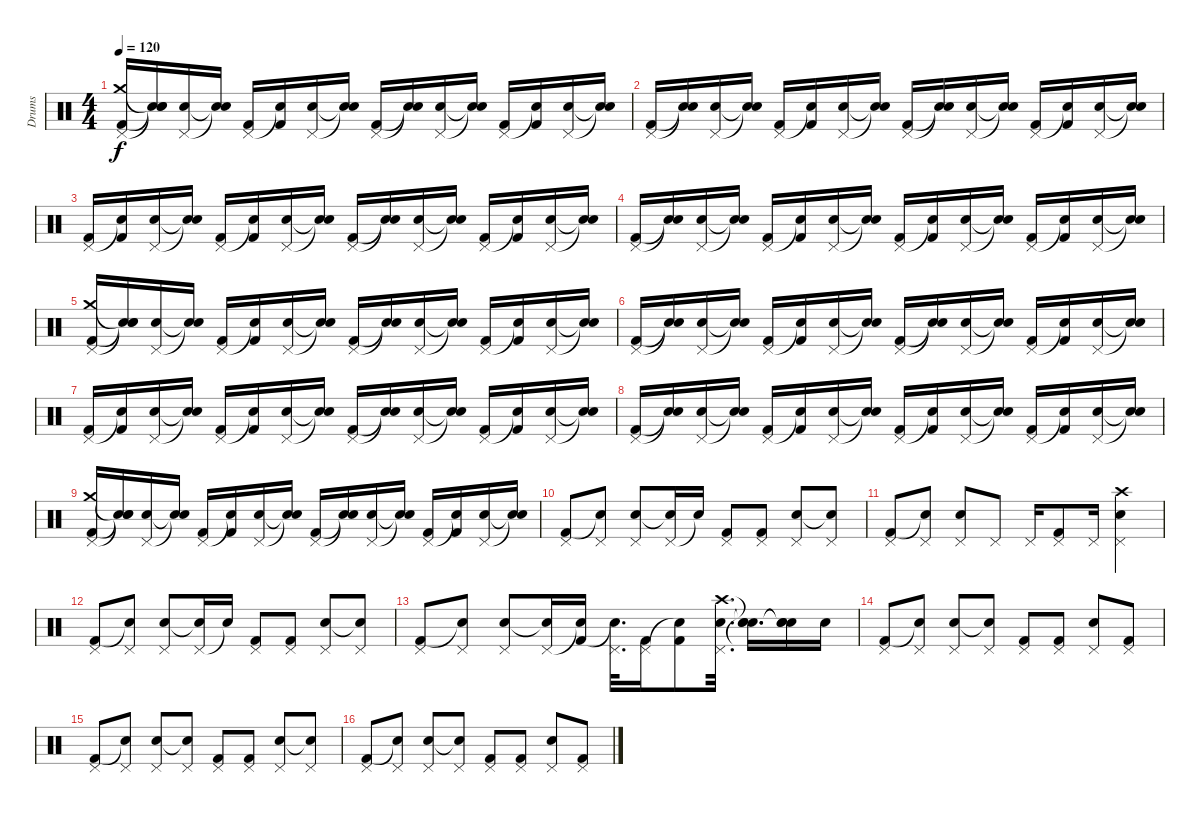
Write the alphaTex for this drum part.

\track ("Drums" "Drums") {instrument percussion}
\staff {score}
\articulation defaults
\ts (4 4)
\tempo 120
\clef neutral
\ks c
("Pedal Hi-Hat (hit)" "Crash medium (hit)" "Kick (hit) 2").16{dy f} ("Snare (hit)"{t} "Snare (hit)"{t} "Snare (hit)"{t}).16 ("Pedal Hi-Hat (hit)" "Snare (hit) 2").16 ("Snare (hit)"{t} "Snare (hit)"{t}).16 ("Pedal Hi-Hat (hit)" "Kick (hit) 2").16 ("Snare (hit)"{t} "Kick (hit) 2").16 ("Pedal Hi-Hat (hit)" "Snare (hit) 2").16 ("Snare (hit)"{t} "Snare (hit)"{t}).16 ("Pedal Hi-Hat (hit)" "Kick (hit) 2").16 ("Snare (hit)"{t} "Snare (hit)"{t}).16 ("Pedal Hi-Hat (hit)" "Snare (hit) 2").16 ("Snare (hit)"{t} "Snare (hit)"{t}).16 ("Pedal Hi-Hat (hit)" "Kick (hit) 2").16 ("Snare (hit)"{t} "Kick (hit) 2").16 ("Pedal Hi-Hat (hit)" "Snare (hit) 2").16 ("Snare (hit)"{t} "Snare (hit)"{t}).16 |
("Pedal Hi-Hat (hit)" "Kick (hit) 2").16 ("Snare (hit)"{t} "Snare (hit)"{t}).16 ("Pedal Hi-Hat (hit)" "Snare (hit) 2").16 ("Snare (hit)"{t} "Snare (hit)"{t}).16 ("Pedal Hi-Hat (hit)" "Kick (hit) 2").16 ("Snare (hit)"{t} "Kick (hit) 2").16 ("Pedal Hi-Hat (hit)" "Snare (hit) 2").16 ("Snare (hit)"{t} "Snare (hit)"{t}).16 ("Pedal Hi-Hat (hit)" "Kick (hit) 2").16 ("Snare (hit)"{t} "Snare (hit)"{t}).16 ("Pedal Hi-Hat (hit)" "Snare (hit) 2").16 ("Snare (hit)"{t} "Snare (hit)"{t}).16 ("Pedal Hi-Hat (hit)" "Kick (hit) 2").16 ("Snare (hit)"{t} "Kick (hit) 2").16 ("Pedal Hi-Hat (hit)" "Snare (hit) 2").16 ("Snare (hit)"{t} "Snare (hit)"{t}).16 |
("Pedal Hi-Hat (hit)" "Kick (hit) 2").16 ("Snare (hit)"{t} "Kick (hit) 2").16 ("Pedal Hi-Hat (hit)" "Snare (hit) 2").16 ("Snare (hit)"{t} "Snare (hit)"{t}).16 ("Pedal Hi-Hat (hit)" "Kick (hit) 2").16 ("Snare (hit)"{t} "Kick (hit) 2").16 ("Pedal Hi-Hat (hit)" "Snare (hit) 2").16 ("Snare (hit)"{t} "Snare (hit)"{t}).16 ("Pedal Hi-Hat (hit)" "Kick (hit) 2").16 ("Snare (hit)"{t} "Snare (hit)"{t}).16 ("Pedal Hi-Hat (hit)" "Snare (hit) 2").16 ("Snare (hit)"{t} "Snare (hit)"{t}).16 ("Pedal Hi-Hat (hit)" "Kick (hit) 2").16 ("Snare (hit)"{t} "Kick (hit) 2").16 ("Pedal Hi-Hat (hit)" "Snare (hit) 2").16 ("Snare (hit)"{t} "Snare (hit)"{t}).16 |
("Pedal Hi-Hat (hit)" "Kick (hit) 2").16 ("Snare (hit)"{t} "Snare (hit)"{t}).16 ("Pedal Hi-Hat (hit)" "Snare (hit) 2").16 ("Snare (hit)"{t} "Snare (hit)"{t}).16 ("Pedal Hi-Hat (hit)" "Kick (hit) 2").16 ("Snare (hit)"{t} "Kick (hit) 2").16 ("Pedal Hi-Hat (hit)" "Snare (hit) 2").16 ("Snare (hit)"{t} "Snare (hit)"{t}).16 ("Pedal Hi-Hat (hit)" "Kick (hit) 2").16 ("Snare (hit)"{t} "Kick (hit) 2").16 ("Pedal Hi-Hat (hit)" "Snare (hit) 2").16 ("Snare (hit)"{t} "Snare (hit)"{t}).16 ("Pedal Hi-Hat (hit)" "Kick (hit) 2").16 ("Snare (hit)"{t} "Kick (hit) 2").16 ("Pedal Hi-Hat (hit)" "Snare (hit) 2").16 ("Snare (hit)"{t} "Snare (hit)"{t}).16 |
("Pedal Hi-Hat (hit)" "Crash medium (hit)" "Kick (hit) 2").16 ("Snare (hit)"{t} "Snare (hit)"{t} "Snare (hit)"{t}).16 ("Pedal Hi-Hat (hit)" "Snare (hit) 2").16 ("Snare (hit)"{t} "Snare (hit)"{t}).16 ("Pedal Hi-Hat (hit)" "Kick (hit) 2").16 ("Snare (hit)"{t} "Kick (hit) 2").16 ("Pedal Hi-Hat (hit)" "Snare (hit) 2").16 ("Snare (hit)"{t} "Snare (hit)"{t}).16 ("Pedal Hi-Hat (hit)" "Kick (hit) 2").16 ("Snare (hit)"{t} "Snare (hit)"{t}).16 ("Pedal Hi-Hat (hit)" "Snare (hit) 2").16 ("Snare (hit)"{t} "Snare (hit)"{t}).16 ("Pedal Hi-Hat (hit)" "Kick (hit) 2").16 ("Snare (hit)"{t} "Kick (hit) 2").16 ("Pedal Hi-Hat (hit)" "Snare (hit) 2").16 ("Snare (hit)"{t} "Snare (hit)"{t}).16 |
("Pedal Hi-Hat (hit)" "Kick (hit) 2").16 ("Snare (hit)"{t} "Snare (hit)"{t}).16 ("Pedal Hi-Hat (hit)" "Snare (hit) 2").16 ("Snare (hit)"{t} "Snare (hit)"{t}).16 ("Pedal Hi-Hat (hit)" "Kick (hit) 2").16 ("Snare (hit)"{t} "Kick (hit) 2").16 ("Pedal Hi-Hat (hit)" "Snare (hit) 2").16 ("Snare (hit)"{t} "Snare (hit)"{t}).16 ("Pedal Hi-Hat (hit)" "Kick (hit) 2").16 ("Snare (hit)"{t} "Snare (hit)"{t}).16 ("Pedal Hi-Hat (hit)" "Snare (hit) 2").16 ("Snare (hit)"{t} "Snare (hit)"{t}).16 ("Pedal Hi-Hat (hit)" "Kick (hit) 2").16 ("Snare (hit)"{t} "Kick (hit) 2").16 ("Pedal Hi-Hat (hit)" "Snare (hit) 2").16 ("Snare (hit)"{t} "Snare (hit)"{t}).16 |
("Pedal Hi-Hat (hit)" "Kick (hit) 2").16 ("Snare (hit)"{t} "Kick (hit) 2").16 ("Pedal Hi-Hat (hit)" "Snare (hit) 2").16 ("Snare (hit)"{t} "Snare (hit)"{t}).16 ("Pedal Hi-Hat (hit)" "Kick (hit) 2").16 ("Snare (hit)"{t} "Kick (hit) 2").16 ("Pedal Hi-Hat (hit)" "Snare (hit) 2").16 ("Snare (hit)"{t} "Snare (hit)"{t}).16 ("Pedal Hi-Hat (hit)" "Kick (hit) 2").16 ("Snare (hit)"{t} "Snare (hit)"{t}).16 ("Pedal Hi-Hat (hit)" "Snare (hit) 2").16 ("Snare (hit)"{t} "Snare (hit)"{t}).16 ("Pedal Hi-Hat (hit)" "Kick (hit) 2").16 ("Snare (hit)"{t} "Kick (hit) 2").16 ("Pedal Hi-Hat (hit)" "Snare (hit) 2").16 ("Snare (hit)"{t} "Snare (hit)"{t}).16 |
("Pedal Hi-Hat (hit)" "Kick (hit) 2").16 ("Snare (hit)"{t} "Snare (hit)"{t}).16 ("Pedal Hi-Hat (hit)" "Snare (hit) 2").16 ("Snare (hit)"{t} "Snare (hit)"{t}).16 ("Pedal Hi-Hat (hit)" "Kick (hit) 2").16 ("Snare (hit)"{t} "Kick (hit) 2").16 ("Pedal Hi-Hat (hit)" "Snare (hit) 2").16 ("Snare (hit)"{t} "Snare (hit)"{t}).16 ("Pedal Hi-Hat (hit)" "Kick (hit) 2").16 ("Snare (hit)"{t} "Kick (hit) 2").16 ("Pedal Hi-Hat (hit)" "Snare (hit) 2").16 ("Snare (hit)"{t} "Snare (hit)"{t}).16 ("Pedal Hi-Hat (hit)" "Kick (hit) 2").16 ("Snare (hit)"{t} "Kick (hit) 2").16 ("Pedal Hi-Hat (hit)" "Snare (hit) 2").16 ("Snare (hit)"{t} "Snare (hit)"{t}).16 |
("Pedal Hi-Hat (hit)" "Crash medium (hit)" "Kick (hit) 2").16 ("Snare (hit)"{t} "Snare (hit)"{t} "Snare (hit)"{t}).16 ("Pedal Hi-Hat (hit)" "Snare (hit) 2").16 ("Snare (hit)"{t} "Snare (hit)"{t}).16 ("Pedal Hi-Hat (hit)" "Kick (hit) 2").16 ("Snare (hit)"{t} "Kick (hit) 2").16 ("Pedal Hi-Hat (hit)" "Snare (hit) 2").16 ("Snare (hit)"{t} "Snare (hit)"{t}).16 ("Pedal Hi-Hat (hit)" "Kick (hit) 2").16 ("Snare (hit)"{t} "Snare (hit)"{t}).16 ("Pedal Hi-Hat (hit)" "Snare (hit) 2").16 ("Snare (hit)"{t} "Snare (hit)"{t}).16 ("Pedal Hi-Hat (hit)" "Kick (hit) 2").16 ("Snare (hit)"{t} "Kick (hit) 2").16 ("Pedal Hi-Hat (hit)" "Snare (hit) 2").16 ("Snare (hit)"{t} "Snare (hit)"{t}).16 |
("Pedal Hi-Hat (hit)" "Kick (hit) 2").8 ("Pedal Hi-Hat (hit)" "Snare (hit)"{t}).8 ("Pedal Hi-Hat (hit)" "Snare (hit) 2").8 ("Pedal Hi-Hat (hit)" "Snare (hit)"{t}).16 "Snare (hit)"{t}.16 ("Pedal Hi-Hat (hit)" "Kick (hit) 2").8 ("Pedal Hi-Hat (hit)" "Kick (hit) 2").8 ("Pedal Hi-Hat (hit)" "Snare (hit) 2").8 ("Pedal Hi-Hat (hit)" "Snare (hit)"{t}).8 |
("Pedal Hi-Hat (hit)" "Kick (hit) 2").8 ("Pedal Hi-Hat (hit)" "Snare (hit)"{t}).8 ("Pedal Hi-Hat (hit)" "Snare (hit) 2").8 "Pedal Hi-Hat (hit)".8 "Pedal Hi-Hat (hit)".16 ("Pedal Hi-Hat (hit)" "Kick (hit) 2").8 "Pedal Hi-Hat (hit)".16 ("Pedal Hi-Hat (hit)" "Crash high (hit)" "Snare (hit) 2").4 |
("Pedal Hi-Hat (hit)" "Kick (hit) 2").8 ("Pedal Hi-Hat (hit)" "Snare (hit)"{t}).8 ("Pedal Hi-Hat (hit)" "Snare (hit) 2").8 ("Pedal Hi-Hat (hit)" "Snare (hit)"{t}).16 "Snare (hit)"{t}.16 ("Pedal Hi-Hat (hit)" "Kick (hit) 2").8 ("Pedal Hi-Hat (hit)" "Kick (hit) 2").8 ("Pedal Hi-Hat (hit)" "Snare (hit) 2").8 ("Pedal Hi-Hat (hit)" "Snare (hit)"{t}).8 |
("Pedal Hi-Hat (hit)" "Kick (hit) 2").8 ("Pedal Hi-Hat (hit)" "Snare (hit)"{t}).8 ("Pedal Hi-Hat (hit)" "Snare (hit) 2").8 ("Pedal Hi-Hat (hit)" "Snare (hit)"{t}).16 ("Snare (hit)"{t} "Kick (hit) 2").16 ("Pedal Hi-Hat (hit)" "Snare (hit)"{t}).32{d} ("Pedal Hi-Hat (hit)" "Kick (hit) 2").16 ("Snare (hit)"{t} "Kick (hit) 2").8 ("Pedal Hi-Hat (hit)" "Crash high (hit)" "Snare (hit) 2").32{d} ("Snare (hit)"{t} "Snare (hit)"{t} "Snare (hit)"{t}).16{d} ("Snare (hit) 2" "Snare (hit)"{t} "Snare (hit)"{t}).16 "Snare (hit) 2".16 |
("Pedal Hi-Hat (hit)" "Kick (hit) 2").8 ("Pedal Hi-Hat (hit)" "Snare (hit)"{t}).8 ("Pedal Hi-Hat (hit)" "Snare (hit) 2").8 ("Pedal Hi-Hat (hit)" "Snare (hit)"{t}).8 ("Pedal Hi-Hat (hit)" "Kick (hit) 2").8 ("Pedal Hi-Hat (hit)" "Kick (hit) 2").8 ("Pedal Hi-Hat (hit)" "Snare (hit) 2").8 ("Pedal Hi-Hat (hit)" "Kick (hit) 2").8 |
("Pedal Hi-Hat (hit)" "Kick (hit) 2").8 ("Pedal Hi-Hat (hit)" "Snare (hit)"{t}).8 ("Pedal Hi-Hat (hit)" "Snare (hit) 2").8 ("Pedal Hi-Hat (hit)" "Snare (hit)"{t}).8 ("Pedal Hi-Hat (hit)" "Kick (hit) 2").8 ("Pedal Hi-Hat (hit)" "Kick (hit) 2").8 ("Pedal Hi-Hat (hit)" "Snare (hit) 2").8 ("Pedal Hi-Hat (hit)" "Snare (hit)"{t}).8 |
("Pedal Hi-Hat (hit)" "Kick (hit) 2").8 ("Pedal Hi-Hat (hit)" "Snare (hit)"{t}).8 ("Pedal Hi-Hat (hit)" "Snare (hit) 2").8 ("Pedal Hi-Hat (hit)" "Snare (hit)"{t}).8 ("Pedal Hi-Hat (hit)" "Kick (hit) 2").8 ("Pedal Hi-Hat (hit)" "Kick (hit) 2").8 ("Pedal Hi-Hat (hit)" "Snare (hit) 2").8 ("Pedal Hi-Hat (hit)" "Kick (hit) 2").8
